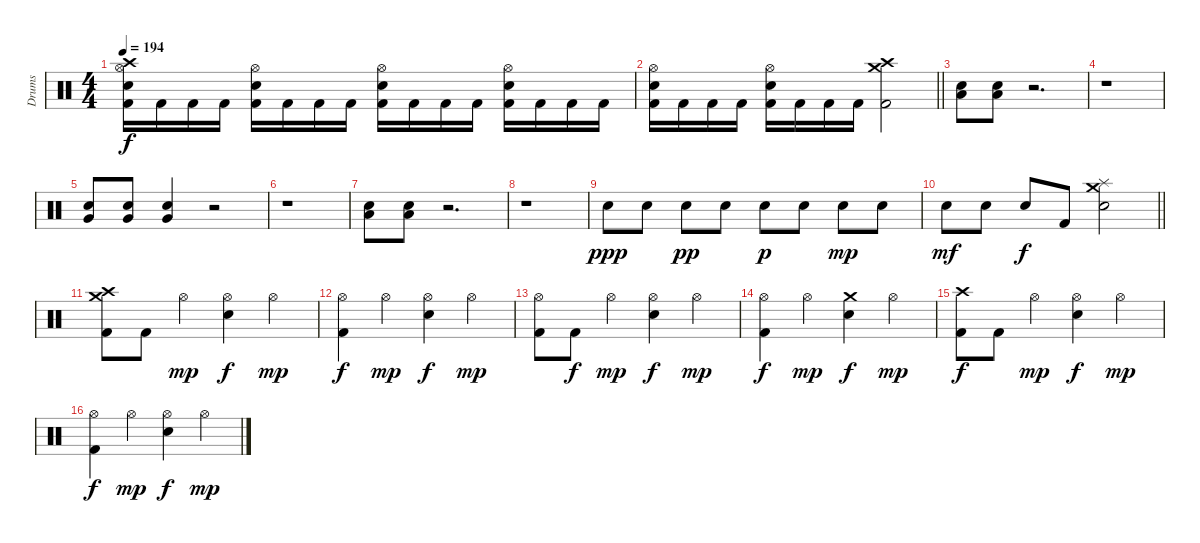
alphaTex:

\track ("Drums" "Drums") {instrument percussion}
\staff {score}
\articulation defaults
\ts (4 4)
\tempo 194
\clef neutral
\ks c
("Crash high (hit)" "Hi-Hat (open)" "Electric Snare (hit)" "Kick (hit) 2").16{dy f} "Kick (hit) 2".16 "Kick (hit) 2".16 "Kick (hit) 2".16 ("Hi-Hat (open)" "Electric Snare (hit)" "Kick (hit) 2").16 "Kick (hit) 2".16 "Kick (hit) 2".16 "Kick (hit) 2".16 ("Hi-Hat (open)" "Electric Snare (hit)" "Kick (hit) 2").16 "Kick (hit) 2".16 "Kick (hit) 2".16 "Kick (hit) 2".16 ("Hi-Hat (open)" "Electric Snare (hit)" "Kick (hit) 2").16 "Kick (hit) 2".16 "Kick (hit) 2".16 "Kick (hit) 2".16 |
\barLineRight lightlight
("Hi-Hat (open)" "Electric Snare (hit)" "Kick (hit) 2").16 "Kick (hit) 2".16 "Kick (hit) 2".16 "Kick (hit) 2".16 ("Hi-Hat (open)" "Electric Snare (hit)" "Kick (hit) 2").16 "Kick (hit) 2".16 "Kick (hit) 2".16 "Kick (hit) 2".16 ("Crash high (hit)" "Crash medium (hit)" "Kick (hit) 2").2 |
("Low Tom (hit)" "Electric Snare (hit)").8 ("Low Tom (hit)" "Electric Snare (hit)").8 r.2{d} |
r.1 |
("Very Low Tom (hit)" "Electric Snare (hit)").8 ("Very Low Tom (hit)" "Electric Snare (hit)").8 ("Very Low Tom (hit)" "Electric Snare (hit)").4 r.2 |
r.1 |
("Low Tom (hit)" "Electric Snare (hit)").8 ("Low Tom (hit)" "Electric Snare (hit)").8 r.2{d} |
r.1 |
"Electric Snare (hit)".8{dy ppp} "Electric Snare (hit)".8 "Electric Snare (hit)".8{dy pp} "Electric Snare (hit)".8 "Electric Snare (hit)".8{dy p} "Electric Snare (hit)".8 "Electric Snare (hit)".8{dy mp} "Electric Snare (hit)".8 |
\barLineRight lightlight "Electric Snare (hit)".8{dy mf} "Electric Snare (hit)".8 "Electric Snare (hit)".8{dy f} "Kick (hit) 2".8
("Crash medium (hit)" "Splash (hit)" "Electric Snare (hit)").2 |
("Crash high (hit)" "Crash medium (hit)" "Kick (hit) 2").8 "Kick (hit) 2".8 "Hi-Hat (open)".4{dy mp} ("Hi-Hat (open)" "Electric Snare (hit)").4{dy f} "Hi-Hat (open)".4{dy mp} |
("Hi-Hat (open)" "Kick (hit) 2").4{dy f} "Hi-Hat (open)".4{dy mp} ("Hi-Hat (open)" "Electric Snare (hit)").4{dy f} "Hi-Hat (open)".4{dy mp} |
("Hi-Hat (open)" "Kick (hit) 2").8 "Kick (hit) 2".8{dy f} "Hi-Hat (open)".4{dy mp} ("Hi-Hat (open)" "Electric Snare (hit)").4{dy f} "Hi-Hat (open)".4{dy mp} |
("Hi-Hat (open)" "Kick (hit) 2").4{dy f} "Hi-Hat (open)".4{dy mp} ("Crash medium (hit)" "Electric Snare (hit)").4{dy f} "Hi-Hat (open)".4{dy mp} |
("Crash high (hit)" "Kick (hit) 2").8{dy f} "Kick (hit) 2".8 "Hi-Hat (open)".4{dy mp} ("Hi-Hat (open)" "Electric Snare (hit)").4{dy f} "Hi-Hat (open)".4{dy mp} |
("Hi-Hat (open)" "Kick (hit) 2").4{dy f} "Hi-Hat (open)".4{dy mp} ("Hi-Hat (open)" "Electric Snare (hit)").4{dy f} "Hi-Hat (open)".4{dy mp}
